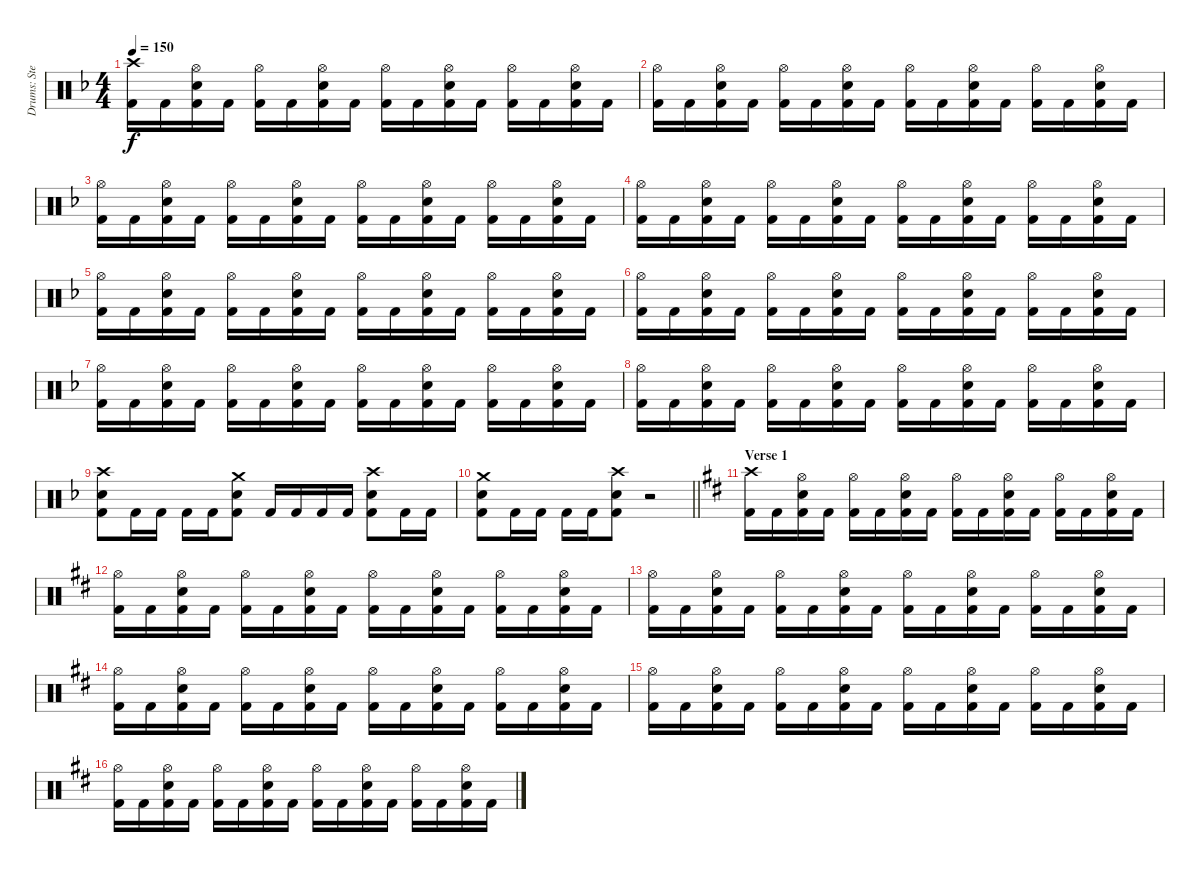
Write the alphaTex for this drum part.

\track ("Drums: Stefan Svantesson" "Drums: Ste") {instrument percussion}
\staff {score}
\articulation defaults
\ts (4 4)
\tempo 150
\clef neutral
\ks dminor
("Crash high (hit)" "Kick (hit) 2").16{dy f} "Kick (hit) 2".16 ("Hi-Hat (open)" "Electric Snare (hit)" "Kick (hit) 2").16 "Kick (hit) 2".16 ("Hi-Hat (open)" "Kick (hit) 2").16 "Kick (hit) 2".16 ("Hi-Hat (open)" "Electric Snare (hit)" "Kick (hit) 2").16 "Kick (hit) 2".16 ("Hi-Hat (open)" "Kick (hit) 2").16 "Kick (hit) 2".16 ("Hi-Hat (open)" "Electric Snare (hit)" "Kick (hit) 2").16 "Kick (hit) 2".16 ("Hi-Hat (open)" "Kick (hit) 2").16 "Kick (hit) 2".16 ("Hi-Hat (open)" "Electric Snare (hit)" "Kick (hit) 2").16 "Kick (hit) 2".16 |
("Hi-Hat (open)" "Kick (hit) 2").16 "Kick (hit) 2".16 ("Hi-Hat (open)" "Electric Snare (hit)" "Kick (hit) 2").16 "Kick (hit) 2".16 ("Hi-Hat (open)" "Kick (hit) 2").16 "Kick (hit) 2".16 ("Hi-Hat (open)" "Electric Snare (hit)" "Kick (hit) 2").16 "Kick (hit) 2".16 ("Hi-Hat (open)" "Kick (hit) 2").16 "Kick (hit) 2".16 ("Hi-Hat (open)" "Electric Snare (hit)" "Kick (hit) 2").16 "Kick (hit) 2".16 ("Hi-Hat (open)" "Kick (hit) 2").16 "Kick (hit) 2".16 ("Hi-Hat (open)" "Electric Snare (hit)" "Kick (hit) 2").16 "Kick (hit) 2".16 |
("Hi-Hat (open)" "Kick (hit) 2").16 "Kick (hit) 2".16 ("Hi-Hat (open)" "Electric Snare (hit)" "Kick (hit) 2").16 "Kick (hit) 2".16 ("Hi-Hat (open)" "Kick (hit) 2").16 "Kick (hit) 2".16 ("Hi-Hat (open)" "Electric Snare (hit)" "Kick (hit) 2").16 "Kick (hit) 2".16 ("Hi-Hat (open)" "Kick (hit) 2").16 "Kick (hit) 2".16 ("Hi-Hat (open)" "Electric Snare (hit)" "Kick (hit) 2").16 "Kick (hit) 2".16 ("Hi-Hat (open)" "Kick (hit) 2").16 "Kick (hit) 2".16 ("Hi-Hat (open)" "Electric Snare (hit)" "Kick (hit) 2").16 "Kick (hit) 2".16 |
("Hi-Hat (open)" "Kick (hit) 2").16 "Kick (hit) 2".16 ("Hi-Hat (open)" "Electric Snare (hit)" "Kick (hit) 2").16 "Kick (hit) 2".16 ("Hi-Hat (open)" "Kick (hit) 2").16 "Kick (hit) 2".16 ("Hi-Hat (open)" "Electric Snare (hit)" "Kick (hit) 2").16 "Kick (hit) 2".16 ("Hi-Hat (open)" "Kick (hit) 2").16 "Kick (hit) 2".16 ("Hi-Hat (open)" "Electric Snare (hit)" "Kick (hit) 2").16 "Kick (hit) 2".16 ("Hi-Hat (open)" "Kick (hit) 2").16 "Kick (hit) 2".16 ("Hi-Hat (open)" "Electric Snare (hit)" "Kick (hit) 2").16 "Kick (hit) 2".16 |
("Hi-Hat (open)" "Kick (hit) 2").16 "Kick (hit) 2".16 ("Hi-Hat (open)" "Electric Snare (hit)" "Kick (hit) 2").16 "Kick (hit) 2".16 ("Hi-Hat (open)" "Kick (hit) 2").16 "Kick (hit) 2".16 ("Hi-Hat (open)" "Electric Snare (hit)" "Kick (hit) 2").16 "Kick (hit) 2".16 ("Hi-Hat (open)" "Kick (hit) 2").16 "Kick (hit) 2".16 ("Hi-Hat (open)" "Electric Snare (hit)" "Kick (hit) 2").16 "Kick (hit) 2".16 ("Hi-Hat (open)" "Kick (hit) 2").16 "Kick (hit) 2".16 ("Hi-Hat (open)" "Electric Snare (hit)" "Kick (hit) 2").16 "Kick (hit) 2".16 |
("Hi-Hat (open)" "Kick (hit) 2").16 "Kick (hit) 2".16 ("Hi-Hat (open)" "Electric Snare (hit)" "Kick (hit) 2").16 "Kick (hit) 2".16 ("Hi-Hat (open)" "Kick (hit) 2").16 "Kick (hit) 2".16 ("Hi-Hat (open)" "Electric Snare (hit)" "Kick (hit) 2").16 "Kick (hit) 2".16 ("Hi-Hat (open)" "Kick (hit) 2").16 "Kick (hit) 2".16 ("Hi-Hat (open)" "Electric Snare (hit)" "Kick (hit) 2").16 "Kick (hit) 2".16 ("Hi-Hat (open)" "Kick (hit) 2").16 "Kick (hit) 2".16 ("Hi-Hat (open)" "Electric Snare (hit)" "Kick (hit) 2").16 "Kick (hit) 2".16 |
("Hi-Hat (open)" "Kick (hit) 2").16 "Kick (hit) 2".16 ("Hi-Hat (open)" "Electric Snare (hit)" "Kick (hit) 2").16 "Kick (hit) 2".16 ("Hi-Hat (open)" "Kick (hit) 2").16 "Kick (hit) 2".16 ("Hi-Hat (open)" "Electric Snare (hit)" "Kick (hit) 2").16 "Kick (hit) 2".16 ("Hi-Hat (open)" "Kick (hit) 2").16 "Kick (hit) 2".16 ("Hi-Hat (open)" "Electric Snare (hit)" "Kick (hit) 2").16 "Kick (hit) 2".16 ("Hi-Hat (open)" "Kick (hit) 2").16 "Kick (hit) 2".16 ("Hi-Hat (open)" "Electric Snare (hit)" "Kick (hit) 2").16 "Kick (hit) 2".16 |
("Hi-Hat (open)" "Kick (hit) 2").16 "Kick (hit) 2".16 ("Hi-Hat (open)" "Electric Snare (hit)" "Kick (hit) 2").16 "Kick (hit) 2".16 ("Hi-Hat (open)" "Kick (hit) 2").16 "Kick (hit) 2".16 ("Hi-Hat (open)" "Electric Snare (hit)" "Kick (hit) 2").16 "Kick (hit) 2".16 ("Hi-Hat (open)" "Kick (hit) 2").16 "Kick (hit) 2".16 ("Hi-Hat (open)" "Electric Snare (hit)" "Kick (hit) 2").16 "Kick (hit) 2".16 ("Hi-Hat (open)" "Kick (hit) 2").16 "Kick (hit) 2".16 ("Hi-Hat (open)" "Electric Snare (hit)" "Kick (hit) 2").16 "Kick (hit) 2".16 |
("Crash high (hit)" "Electric Snare (hit)" "Kick (hit) 2").8 "Kick (hit) 2".16 "Kick (hit) 2".16 "Kick (hit) 2".16 "Kick (hit) 2".16 ("Crash medium (hit)" "Electric Snare (hit)" "Kick (hit) 2").8 "Kick (hit) 2".16 "Kick (hit) 2".16 "Kick (hit) 2".16 "Kick (hit) 2".16 ("Crash high (hit)" "Electric Snare (hit)" "Kick (hit) 2").8 "Kick (hit) 2".16 "Kick (hit) 2".16 |
\barLineRight lightlight
("Crash medium (hit)" "Electric Snare (hit)" "Kick (hit) 2").8 "Kick (hit) 2".16 "Kick (hit) 2".16 "Kick (hit) 2".16 "Kick (hit) 2".16 ("Crash high (hit)" "Electric Snare (hit)" "Kick (hit) 2").8 r.2 |
\section ("" "Verse 1")
\ks d
("Crash high (hit)" "Kick (hit) 2").16 "Kick (hit) 2".16 ("Hi-Hat (open)" "Electric Snare (hit)" "Kick (hit) 2").16 "Kick (hit) 2".16 ("Hi-Hat (open)" "Kick (hit) 2").16 "Kick (hit) 2".16 ("Hi-Hat (open)" "Electric Snare (hit)" "Kick (hit) 2").16 "Kick (hit) 2".16 ("Hi-Hat (open)" "Kick (hit) 2").16 "Kick (hit) 2".16 ("Hi-Hat (open)" "Electric Snare (hit)" "Kick (hit) 2").16 "Kick (hit) 2".16 ("Hi-Hat (open)" "Kick (hit) 2").16 "Kick (hit) 2".16 ("Hi-Hat (open)" "Electric Snare (hit)" "Kick (hit) 2").16 "Kick (hit) 2".16 |
("Hi-Hat (open)" "Kick (hit) 2").16 "Kick (hit) 2".16 ("Hi-Hat (open)" "Electric Snare (hit)" "Kick (hit) 2").16 "Kick (hit) 2".16 ("Hi-Hat (open)" "Kick (hit) 2").16 "Kick (hit) 2".16 ("Hi-Hat (open)" "Electric Snare (hit)" "Kick (hit) 2").16 "Kick (hit) 2".16 ("Hi-Hat (open)" "Kick (hit) 2").16 "Kick (hit) 2".16 ("Hi-Hat (open)" "Electric Snare (hit)" "Kick (hit) 2").16 "Kick (hit) 2".16 ("Hi-Hat (open)" "Kick (hit) 2").16 "Kick (hit) 2".16 ("Hi-Hat (open)" "Electric Snare (hit)" "Kick (hit) 2").16 "Kick (hit) 2".16 |
("Hi-Hat (open)" "Kick (hit) 2").16 "Kick (hit) 2".16 ("Hi-Hat (open)" "Electric Snare (hit)" "Kick (hit) 2").16 "Kick (hit) 2".16 ("Hi-Hat (open)" "Kick (hit) 2").16 "Kick (hit) 2".16 ("Hi-Hat (open)" "Electric Snare (hit)" "Kick (hit) 2").16 "Kick (hit) 2".16 ("Hi-Hat (open)" "Kick (hit) 2").16 "Kick (hit) 2".16 ("Hi-Hat (open)" "Electric Snare (hit)" "Kick (hit) 2").16 "Kick (hit) 2".16 ("Hi-Hat (open)" "Kick (hit) 2").16 "Kick (hit) 2".16 ("Hi-Hat (open)" "Electric Snare (hit)" "Kick (hit) 2").16 "Kick (hit) 2".16 |
("Hi-Hat (open)" "Kick (hit) 2").16 "Kick (hit) 2".16 ("Hi-Hat (open)" "Electric Snare (hit)" "Kick (hit) 2").16 "Kick (hit) 2".16 ("Hi-Hat (open)" "Kick (hit) 2").16 "Kick (hit) 2".16 ("Hi-Hat (open)" "Electric Snare (hit)" "Kick (hit) 2").16 "Kick (hit) 2".16 ("Hi-Hat (open)" "Kick (hit) 2").16 "Kick (hit) 2".16 ("Hi-Hat (open)" "Electric Snare (hit)" "Kick (hit) 2").16 "Kick (hit) 2".16 ("Hi-Hat (open)" "Kick (hit) 2").16 "Kick (hit) 2".16 ("Hi-Hat (open)" "Electric Snare (hit)" "Kick (hit) 2").16 "Kick (hit) 2".16 |
("Hi-Hat (open)" "Kick (hit) 2").16 "Kick (hit) 2".16 ("Hi-Hat (open)" "Electric Snare (hit)" "Kick (hit) 2").16 "Kick (hit) 2".16 ("Hi-Hat (open)" "Kick (hit) 2").16 "Kick (hit) 2".16 ("Hi-Hat (open)" "Electric Snare (hit)" "Kick (hit) 2").16 "Kick (hit) 2".16 ("Hi-Hat (open)" "Kick (hit) 2").16 "Kick (hit) 2".16 ("Hi-Hat (open)" "Electric Snare (hit)" "Kick (hit) 2").16 "Kick (hit) 2".16 ("Hi-Hat (open)" "Kick (hit) 2").16 "Kick (hit) 2".16 ("Hi-Hat (open)" "Electric Snare (hit)" "Kick (hit) 2").16 "Kick (hit) 2".16 |
("Hi-Hat (open)" "Kick (hit) 2").16 "Kick (hit) 2".16 ("Hi-Hat (open)" "Electric Snare (hit)" "Kick (hit) 2").16 "Kick (hit) 2".16 ("Hi-Hat (open)" "Kick (hit) 2").16 "Kick (hit) 2".16 ("Hi-Hat (open)" "Electric Snare (hit)" "Kick (hit) 2").16 "Kick (hit) 2".16 ("Hi-Hat (open)" "Kick (hit) 2").16 "Kick (hit) 2".16 ("Hi-Hat (open)" "Electric Snare (hit)" "Kick (hit) 2").16 "Kick (hit) 2".16 ("Hi-Hat (open)" "Kick (hit) 2").16 "Kick (hit) 2".16 ("Hi-Hat (open)" "Electric Snare (hit)" "Kick (hit) 2").16 "Kick (hit) 2".16
